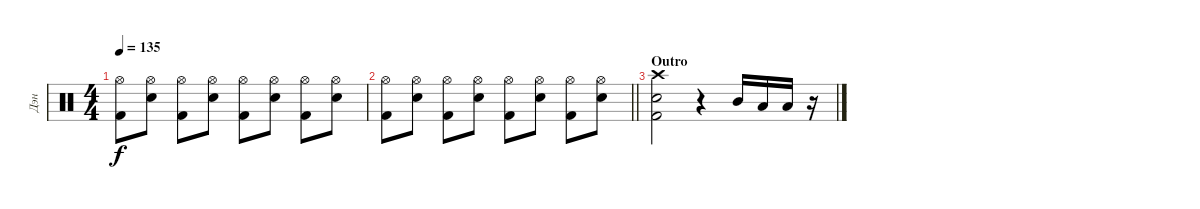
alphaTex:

\track ("Дэн" "Дэн") {instrument percussion}
\staff {score}
\articulation defaults
\ts (4 4)
\tempo 135
\clef neutral
\ks c
("Hi-Hat (open)" "Kick (hit) 2").8{dy f} ("Hi-Hat (open)" "Snare (hit) 2").8 ("Hi-Hat (open)" "Kick (hit) 2").8 ("Hi-Hat (open)" "Snare (hit) 2").8 ("Hi-Hat (open)" "Kick (hit) 2").8 ("Hi-Hat (open)" "Snare (hit) 2").8 ("Hi-Hat (open)" "Kick (hit) 2").8 ("Hi-Hat (open)" "Snare (hit) 2").8 |
\barLineRight lightlight
("Hi-Hat (open)" "Kick (hit) 2").8 ("Hi-Hat (open)" "Snare (hit) 2").8 ("Hi-Hat (open)" "Kick (hit) 2").8 ("Hi-Hat (open)" "Snare (hit) 2").8 ("Hi-Hat (open)" "Kick (hit) 2").8 ("Hi-Hat (open)" "Snare (hit) 2").8 ("Hi-Hat (open)" "Kick (hit) 2").8 ("Hi-Hat (open)" "Snare (hit) 2").8 |
\section ("" "Outro")
("Crash high (hit)" "Snare (hit) 2" "Kick (hit) 2").2 r.4 "Mid Tom (hit)".16 "Low Tom (hit)".16 "Low Floor Tom (hit)".16 r.16
